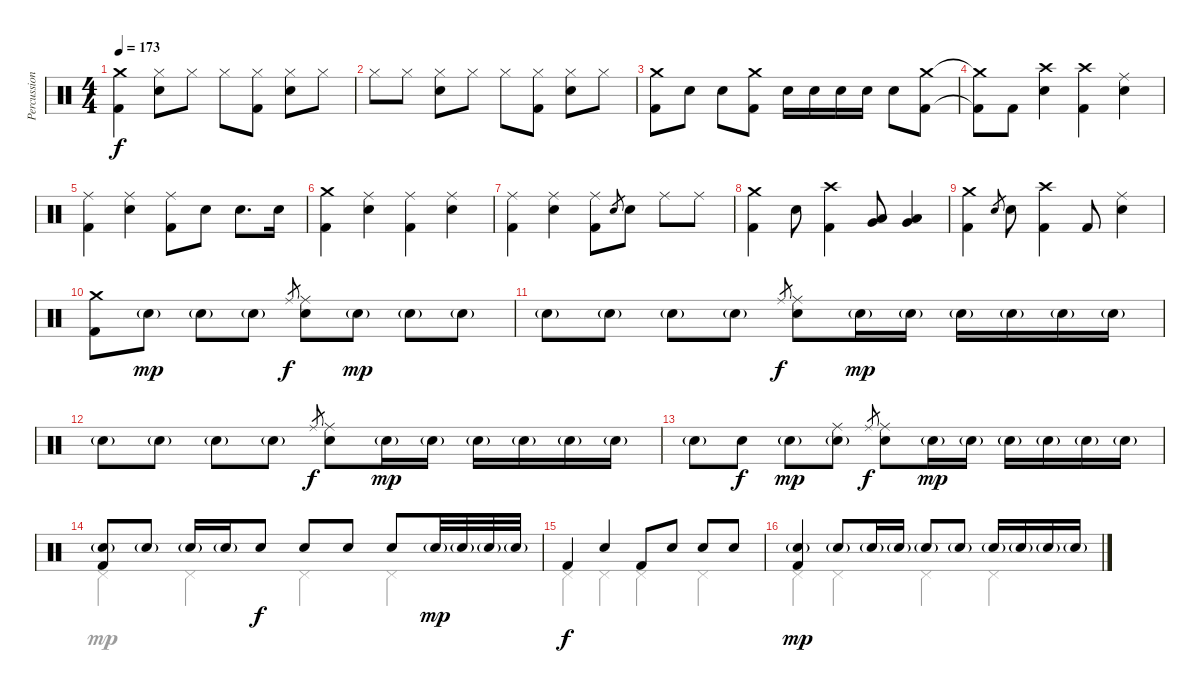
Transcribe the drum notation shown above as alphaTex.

\track ("Percussion" "Percussion") {instrument percussion}
\staff {score}
\articulation defaults
\voice
\ts (4 4)
\tempo 173
\clef neutral
\ks c
("Crash medium (hit)" "Kick (hit) 2").4{dy f} ("Hi-Hat (closed)" "Electric Snare (hit)").8 "Hi-Hat (closed)".8 "Hi-Hat (closed)".8 ("Hi-Hat (closed)" "Kick (hit) 2").8 ("Hi-Hat (closed)" "Electric Snare (hit)").8 "Hi-Hat (closed)".8 |
"Hi-Hat (closed)".8 "Hi-Hat (closed)".8 ("Hi-Hat (closed)" "Electric Snare (hit)").8 "Hi-Hat (closed)".8 "Hi-Hat (closed)".8 ("Hi-Hat (closed)" "Kick (hit) 2").8 ("Hi-Hat (closed)" "Electric Snare (hit)").8 "Hi-Hat (closed)".8 |
("Crash medium (hit)" "Kick (hit) 2").8 "Electric Snare (hit)".8 "Electric Snare (hit)".8 ("Crash medium (hit)" "Kick (hit) 2").8 "Electric Snare (hit)".16 "Electric Snare (hit)".16 "Electric Snare (hit)".16 "Electric Snare (hit)".16 "Electric Snare (hit)".8 ("Crash medium (hit)" "Kick (hit) 2").8 |
("Crash medium (hit)"{t} "Kick (hit) 2"{t}).8 "Kick (hit) 2".8 ("Crash high (hit)" "Electric Snare (hit)").4 ("Crash high (hit)" "Kick (hit) 2").4 ("Ride (middle)" "Electric Snare (hit)").4 |
("Ride (middle)" "Kick (hit) 2").4 ("Ride (middle)" "Electric Snare (hit)").4 ("Ride (middle)" "Kick (hit) 2").8 "Electric Snare (hit)".8 "Electric Snare (hit)".8{d} "Electric Snare (hit)".16 |
("Crash medium (hit)" "Kick (hit) 2").4 ("Ride (middle)" "Electric Snare (hit)").4 ("Ride (middle)" "Kick (hit) 2").4 ("Ride (middle)" "Electric Snare (hit)").4 |
("Ride (middle)" "Kick (hit) 2").4 ("Ride (middle)" "Electric Snare (hit)").4 ("Ride (middle)" "Kick (hit) 2").8 "Electric Snare (hit)".8{gr} "Electric Snare (hit)".8 "Ride (middle)".8 "Ride (middle)".8 |
("Crash medium (hit)" "Kick (hit) 2").4 "Electric Snare (hit)".8 ("Crash high (hit)" "Kick (hit) 2").4 ("Very Low Tom (hit)" "Low Tom (hit)").8 ("Very Low Tom (hit)" "Low Tom (hit)").4 |
("Crash medium (hit)" "Kick (hit) 2").4 "Electric Snare (hit)".8{gr} "Electric Snare (hit)".8 ("Crash high (hit)" "Kick (hit) 2").4 "Kick (hit) 2".8 ("Ride (middle)" "Electric Snare (hit)").4 |
("Crash medium (hit)" "Kick (hit) 2").8 "Electric Snare (hit)"{g}.8{dy mp} "Electric Snare (hit)"{g}.8 "Electric Snare (hit)"{g}.8 "Ride (middle)".8{gr dy f} ("Ride (middle)" "Electric Snare (hit)").8 "Electric Snare (hit)"{g}.8{dy mp} "Electric Snare (hit)"{g}.8 "Electric Snare (hit)"{g}.8 |
"Electric Snare (hit)"{g}.8 "Electric Snare (hit)"{g}.8 "Electric Snare (hit)"{g}.8 "Electric Snare (hit)"{g}.8 "Ride (middle)".8{gr dy f} ("Ride (middle)" "Electric Snare (hit)").8 "Electric Snare (hit)"{g}.16{dy mp} "Electric Snare (hit)"{g}.16 "Electric Snare (hit)"{g}.16 "Electric Snare (hit)"{g}.16 "Electric Snare (hit)"{g}.16 "Electric Snare (hit)"{g}.16 |
"Electric Snare (hit)"{g}.8 "Electric Snare (hit)"{g}.8 "Electric Snare (hit)"{g}.8 "Electric Snare (hit)"{g}.8 "Ride (middle)".8{gr dy f} ("Ride (middle)" "Electric Snare (hit)").8 "Electric Snare (hit)"{g}.16{dy mp} "Electric Snare (hit)"{g}.16 "Electric Snare (hit)"{g}.16 "Electric Snare (hit)"{g}.16 "Electric Snare (hit)"{g}.16 "Electric Snare (hit)"{g}.16 |
"Electric Snare (hit)"{g}.8 "Electric Snare (hit)".8{dy f} "Electric Snare (hit)"{g}.8{dy mp} ("Ride (middle)" "Electric Snare (hit)"{g}).8 "Ride (middle)".8{gr dy f} ("Ride (middle)" "Electric Snare (hit)").8 "Electric Snare (hit)"{g}.16{dy mp} "Electric Snare (hit)"{g}.16 "Electric Snare (hit)"{g}.16 "Electric Snare (hit)"{g}.16 "Electric Snare (hit)"{g}.16 "Electric Snare (hit)"{g}.16 |
("Electric Snare (hit)"{g} "Kick (hit) 2").8 "Electric Snare (hit)"{g}.8 "Electric Snare (hit)"{g}.16 "Electric Snare (hit)"{g}.16 "Electric Snare (hit)".8{dy f} "Electric Snare (hit)".8 "Electric Snare (hit)".8 "Electric Snare (hit)".8 "Electric Snare (hit)"{g}.32{dy mp} "Electric Snare (hit)"{g}.32 "Electric Snare (hit)"{g}.32 "Electric Snare (hit)"{g}.32 |
"Kick (hit) 2".4{dy f} "Electric Snare (hit)".4 "Kick (hit) 2".8 "Electric Snare (hit)".8 "Electric Snare (hit)".8 "Electric Snare (hit)".8 |
("Electric Snare (hit)"{g} "Kick (hit) 2").4{dy mp} "Electric Snare (hit)"{g}.8 "Electric Snare (hit)"{g}.16 "Electric Snare (hit)"{g}.16 "Electric Snare (hit)"{g}.8 "Electric Snare (hit)"{g}.8 "Electric Snare (hit)"{g}.16 "Electric Snare (hit)"{g}.16 "Electric Snare (hit)"{g}.16 "Electric Snare (hit)"{g}.16
\voice
\clef neutral
\ottava regular
\simile none
\ks c
|
|
|
|
|
|
|
|
|
|
|
|
|
"Pedal Hi-Hat (hit)".4 "Pedal Hi-Hat (hit)".4 "Pedal Hi-Hat (hit)".4 "Pedal Hi-Hat (hit)".4 |
"Pedal Hi-Hat (hit)".4 "Pedal Hi-Hat (hit)".4 "Pedal Hi-Hat (hit)".4 "Pedal Hi-Hat (hit)".4 |
"Pedal Hi-Hat (hit)".4 "Pedal Hi-Hat (hit)".4 "Pedal Hi-Hat (hit)".4 "Pedal Hi-Hat (hit)".4
